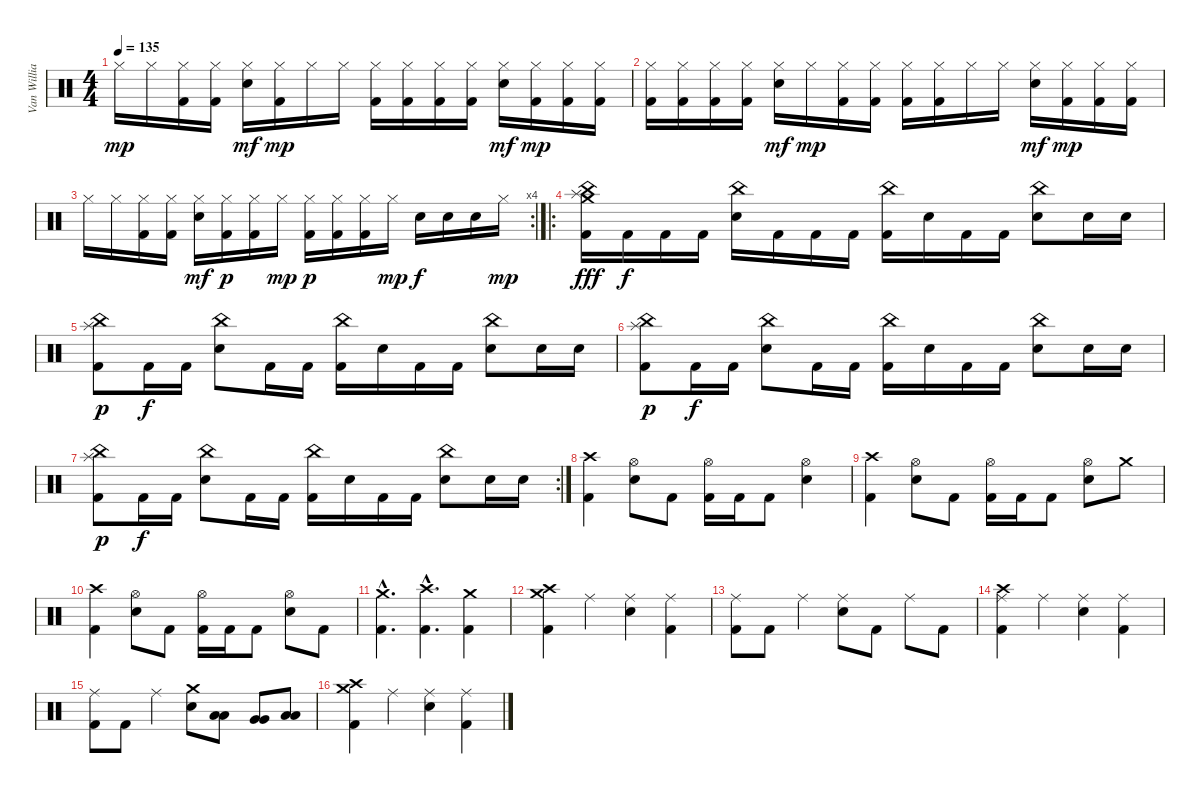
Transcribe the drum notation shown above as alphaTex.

\track ("Van Williams" "Van Willia") {instrument percussion}
\staff {score}
\articulation defaults
\ts (4 4)
\tempo 135
\clef neutral
\ks c "Hi-Hat (closed)".16{dy mp} "Hi-Hat (closed)".16
("Hi-Hat (closed)" "Kick (hit) 2").16 ("Hi-Hat (closed)" "Kick (hit) 2").16 ("Hi-Hat (closed)" "Electric Snare (hit)").16{dy mf} ("Hi-Hat (closed)" "Kick (hit) 2").16{dy mp} "Hi-Hat (closed)".16 "Hi-Hat (closed)".16 ("Hi-Hat (closed)" "Kick (hit) 2").16 ("Hi-Hat (closed)" "Kick (hit) 2").16 ("Hi-Hat (closed)" "Kick (hit) 2").16 ("Hi-Hat (closed)" "Kick (hit) 2").16 ("Hi-Hat (closed)" "Electric Snare (hit)").16{dy mf} ("Hi-Hat (closed)" "Kick (hit) 2").16{dy mp} ("Hi-Hat (closed)" "Kick (hit) 2").16 ("Hi-Hat (closed)" "Kick (hit) 2").16 |
("Hi-Hat (closed)" "Kick (hit) 2").16 ("Hi-Hat (closed)" "Kick (hit) 2").16 ("Hi-Hat (closed)" "Kick (hit) 2").16 ("Hi-Hat (closed)" "Kick (hit) 2").16 ("Hi-Hat (closed)" "Electric Snare (hit)").16{dy mf} "Hi-Hat (closed)".16{dy mp} ("Hi-Hat (closed)" "Kick (hit) 2").16 ("Hi-Hat (closed)" "Kick (hit) 2").16 ("Hi-Hat (closed)" "Kick (hit) 2").16 ("Hi-Hat (closed)" "Kick (hit) 2").16 "Hi-Hat (closed)".16 "Hi-Hat (closed)".16 ("Hi-Hat (closed)" "Electric Snare (hit)").16{dy mf} ("Hi-Hat (closed)" "Kick (hit) 2").16{dy mp} ("Hi-Hat (closed)" "Kick (hit) 2").16 ("Hi-Hat (closed)" "Kick (hit) 2").16 |
\rc 4 "Hi-Hat (closed)".16 "Hi-Hat (closed)".16
("Hi-Hat (closed)" "Kick (hit) 2").16 ("Hi-Hat (closed)" "Kick (hit) 2").16 ("Hi-Hat (closed)" "Electric Snare (hit)").16{dy mf} ("Hi-Hat (closed)" "Kick (hit) 2").16{dy p} ("Hi-Hat (closed)" "Kick (hit) 2").16 "Hi-Hat (closed)".16{dy mp} ("Hi-Hat (closed)" "Kick (hit) 2").16{dy p} ("Hi-Hat (closed)" "Kick (hit) 2").16 ("Hi-Hat (closed)" "Kick (hit) 2").16 "Hi-Hat (closed)".16{dy mp} "Electric Snare (hit)".16{dy f} "Electric Snare (hit)".16 "Electric Snare (hit)".16 "Hi-Hat (closed)".16{dy mp} |
\ro
("Crash medium (hit)" "China (hit)" "Splash (hit)" "Kick (hit) 2").16{dy fff} "Kick (hit) 2".16{dy f} "Kick (hit) 2".16 "Kick (hit) 2".16 ("China (hit)" "Electric Snare (hit)").16 "Kick (hit) 2".16 "Kick (hit) 2".16 "Kick (hit) 2".16 ("China (hit)" "Kick (hit) 2").16 "Electric Snare (hit)".16 "Kick (hit) 2".16 "Kick (hit) 2".16 ("China (hit)" "Electric Snare (hit)").8 "Electric Snare (hit)".16 "Electric Snare (hit)".16 |
("China (hit)" "Splash (hit)" "Kick (hit) 2").8{dy p} "Kick (hit) 2".16{dy f} "Kick (hit) 2".16 ("China (hit)" "Electric Snare (hit)").8 "Kick (hit) 2".16 "Kick (hit) 2".16 ("China (hit)" "Kick (hit) 2").16 "Electric Snare (hit)".16 "Kick (hit) 2".16 "Kick (hit) 2".16 ("China (hit)" "Electric Snare (hit)").8 "Electric Snare (hit)".16 "Electric Snare (hit)".16 |
("China (hit)" "Splash (hit)" "Kick (hit) 2").8{dy p} "Kick (hit) 2".16{dy f} "Kick (hit) 2".16 ("China (hit)" "Electric Snare (hit)").8 "Kick (hit) 2".16 "Kick (hit) 2".16 ("China (hit)" "Kick (hit) 2").16 "Electric Snare (hit)".16 "Kick (hit) 2".16 "Kick (hit) 2".16 ("China (hit)" "Electric Snare (hit)").8 "Electric Snare (hit)".16 "Electric Snare (hit)".16 |
\rc 2
("China (hit)" "Splash (hit)" "Kick (hit) 2").8{dy p} "Kick (hit) 2".16{dy f} "Kick (hit) 2".16 ("China (hit)" "Electric Snare (hit)").8 "Kick (hit) 2".16 "Kick (hit) 2".16 ("China (hit)" "Kick (hit) 2").16 "Electric Snare (hit)".16 "Kick (hit) 2".16 "Kick (hit) 2".16 ("China (hit)" "Electric Snare (hit)").8 "Electric Snare (hit)".16 "Electric Snare (hit)".16 |
("Crash high (hit)" "Kick (hit) 2").4 ("Hi-Hat (open)" "Electric Snare (hit)").8 "Kick (hit) 2".8 ("Hi-Hat (open)" "Kick (hit) 2").16 "Kick (hit) 2".16 "Kick (hit) 2".8 ("Hi-Hat (open)" "Electric Snare (hit)").4 |
("Crash high (hit)" "Kick (hit) 2").4 ("Hi-Hat (open)" "Electric Snare (hit)").8 "Kick (hit) 2".8 ("Hi-Hat (open)" "Kick (hit) 2").16 "Kick (hit) 2".16 "Kick (hit) 2".8 ("Hi-Hat (open)" "Electric Snare (hit)").8 "Crash medium (hit)".8 |
("Crash high (hit)" "Kick (hit) 2").4 ("Hi-Hat (open)" "Electric Snare (hit)").8 "Kick (hit) 2".8 ("Hi-Hat (open)" "Kick (hit) 2").16 "Kick (hit) 2".16 "Kick (hit) 2".8 ("Hi-Hat (open)" "Electric Snare (hit)").8 "Kick (hit) 2".8 |
("Crash medium (hit)"{hac} "Kick (hit) 2"{hac}).4{d} ("Crash high (hit)"{hac} "Kick (hit) 2"{hac}).4{d} ("Crash medium (hit)" "Kick (hit) 2").4 |
("Crash medium (hit)" "Crash high (hit)" "Kick (hit) 2").4 "Ride (middle)".4 ("Ride (middle)" "Electric Snare (hit)").4 ("Ride (middle)" "Kick (hit) 2").4 |
("Ride (middle)" "Kick (hit) 2").8 "Kick (hit) 2".8 "Ride (middle)".4 ("Ride (middle)" "Electric Snare (hit)").8 "Kick (hit) 2".8 "Ride (middle)".8 "Kick (hit) 2".8 |
("Crash high (hit)" "Ride (middle)" "Kick (hit) 2").4 "Ride (middle)".4 ("Ride (middle)" "Electric Snare (hit)").4 ("Ride (middle)" "Kick (hit) 2").4 |
("Ride (middle)" "Kick (hit) 2").8 "Kick (hit) 2".8 "Ride (middle)".4 ("Crash medium (hit)" "Electric Snare (hit)").8 ("Low Floor Tom (hit)" "Low Floor Tom (hit)").8 ("Very Low Tom (hit)" "Very Low Tom (hit)").8 ("Low Floor Tom (hit)" "Low Floor Tom (hit)").8 |
("Crash medium (hit)" "Crash high (hit)" "Kick (hit) 2").4 "Ride (middle)".4 ("Ride (middle)" "Electric Snare (hit)").4 ("Ride (middle)" "Kick (hit) 2").4
